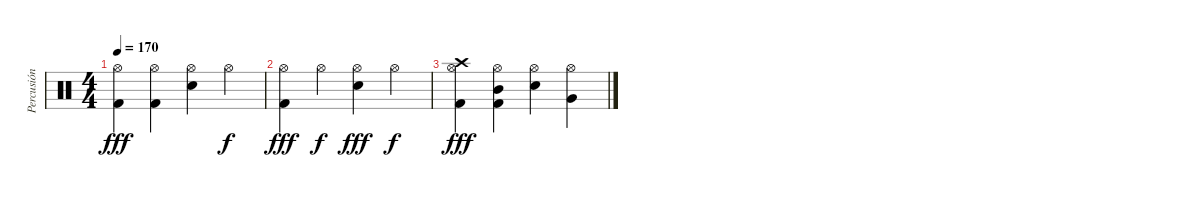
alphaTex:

\track ("Percusión" "Percusión") {instrument percussion}
\staff {score}
\articulation defaults
\ts (4 4)
\tempo 170
\clef neutral
\ks c
("Hi-Hat (open)" "Kick (hit) 2").4{dy fff} ("Hi-Hat (open)" "Kick (hit) 2").4 ("Hi-Hat (open)" "Electric Snare (hit)").4 "Hi-Hat (open)".4{dy f} |
("Hi-Hat (open)" "Kick (hit) 2").4{dy fff} "Hi-Hat (open)".4{dy f} ("Hi-Hat (open)" "Electric Snare (hit)").4{dy fff} "Hi-Hat (open)".4{dy f} |
("Hi-Hat (open)" "Crash high (hit)" "Kick (hit) 2").4{dy fff} ("Hi-Hat (open)" "Mid Tom (hit)" "Kick (hit) 2").4 ("Hi-Hat (open)" "Electric Snare (hit)").4 ("Hi-Hat (open)" "Very Low Tom (hit)").4
